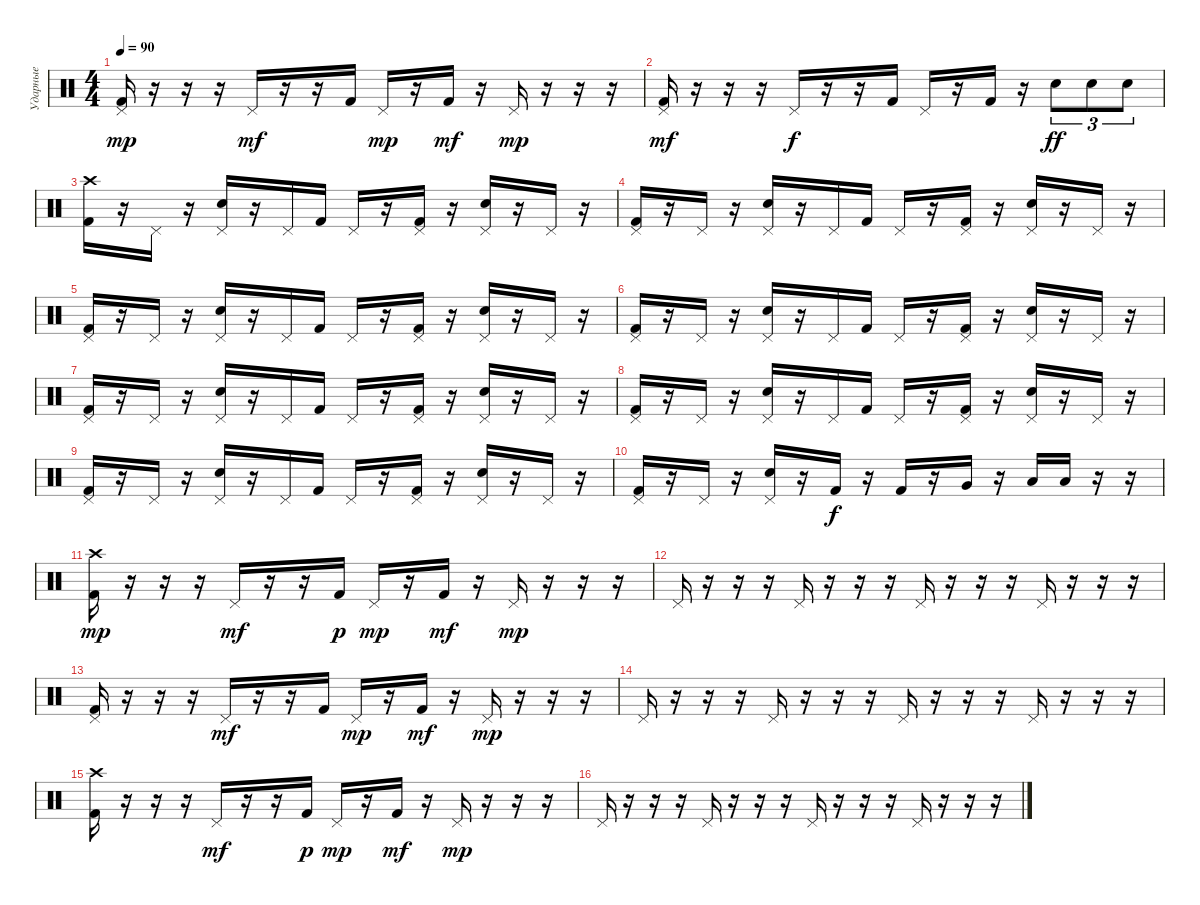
\track ("Ударные" "Ударные") {instrument percussion}
\staff {score}
\articulation defaults
\ts (4 4)
\tempo 90
\clef neutral
\ks aminor
("Pedal Hi-Hat (hit)" "Kick (hit) 2").16{dy mp} r.16 r.16 r.16 "Pedal Hi-Hat (hit)".16{dy mf} r.16 r.16 "Kick (hit) 2".16 "Pedal Hi-Hat (hit)".16{dy mp} r.16 "Kick (hit) 2".16{dy mf} r.16 "Pedal Hi-Hat (hit)".16{dy mp} r.16 r.16 r.16 |
("Pedal Hi-Hat (hit)" "Kick (hit) 2").16{dy mf} r.16 r.16 r.16 "Pedal Hi-Hat (hit)".16{dy f} r.16 r.16 "Kick (hit) 2".16 "Pedal Hi-Hat (hit)".16 r.16 "Kick (hit) 2".16 r.16 "Electric Snare (hit)".8{tu (3 2) dy ff} "Electric Snare (hit)".8{tu (3 2)} "Electric Snare (hit)".8{tu (3 2)} |
("Crash high (hit)" "Kick (hit) 2").16 r.16 "Pedal Hi-Hat (hit)".16 r.16 ("Pedal Hi-Hat (hit)" "Electric Snare (hit)").16 r.16 "Pedal Hi-Hat (hit)".16 "Kick (hit) 2".16 "Pedal Hi-Hat (hit)".16 r.16 ("Pedal Hi-Hat (hit)" "Kick (hit) 2").16 r.16 ("Pedal Hi-Hat (hit)" "Electric Snare (hit)").16 r.16 "Pedal Hi-Hat (hit)".16 r.16 |
("Pedal Hi-Hat (hit)" "Kick (hit) 2").16 r.16 "Pedal Hi-Hat (hit)".16 r.16 ("Pedal Hi-Hat (hit)" "Electric Snare (hit)").16 r.16 "Pedal Hi-Hat (hit)".16 "Kick (hit) 2".16 "Pedal Hi-Hat (hit)".16 r.16 ("Pedal Hi-Hat (hit)" "Kick (hit) 2").16 r.16 ("Pedal Hi-Hat (hit)" "Electric Snare (hit)").16 r.16 "Pedal Hi-Hat (hit)".16 r.16 |
("Pedal Hi-Hat (hit)" "Kick (hit) 2").16 r.16 "Pedal Hi-Hat (hit)".16 r.16 ("Pedal Hi-Hat (hit)" "Electric Snare (hit)").16 r.16 "Pedal Hi-Hat (hit)".16 "Kick (hit) 2".16 "Pedal Hi-Hat (hit)".16 r.16 ("Pedal Hi-Hat (hit)" "Kick (hit) 2").16 r.16 ("Pedal Hi-Hat (hit)" "Electric Snare (hit)").16 r.16 "Pedal Hi-Hat (hit)".16 r.16 |
("Pedal Hi-Hat (hit)" "Kick (hit) 2").16 r.16 "Pedal Hi-Hat (hit)".16 r.16 ("Pedal Hi-Hat (hit)" "Electric Snare (hit)").16 r.16 "Pedal Hi-Hat (hit)".16 "Kick (hit) 2".16 "Pedal Hi-Hat (hit)".16 r.16 ("Pedal Hi-Hat (hit)" "Kick (hit) 2").16 r.16 ("Pedal Hi-Hat (hit)" "Electric Snare (hit)").16 r.16 "Pedal Hi-Hat (hit)".16 r.16 |
("Pedal Hi-Hat (hit)" "Kick (hit) 2").16 r.16 "Pedal Hi-Hat (hit)".16 r.16 ("Pedal Hi-Hat (hit)" "Electric Snare (hit)").16 r.16 "Pedal Hi-Hat (hit)".16 "Kick (hit) 2".16 "Pedal Hi-Hat (hit)".16 r.16 ("Pedal Hi-Hat (hit)" "Kick (hit) 2").16 r.16 ("Pedal Hi-Hat (hit)" "Electric Snare (hit)").16 r.16 "Pedal Hi-Hat (hit)".16 r.16 |
("Pedal Hi-Hat (hit)" "Kick (hit) 2").16 r.16 "Pedal Hi-Hat (hit)".16 r.16 ("Pedal Hi-Hat (hit)" "Electric Snare (hit)").16 r.16 "Pedal Hi-Hat (hit)".16 "Kick (hit) 2".16 "Pedal Hi-Hat (hit)".16 r.16 ("Pedal Hi-Hat (hit)" "Kick (hit) 2").16 r.16 ("Pedal Hi-Hat (hit)" "Electric Snare (hit)").16 r.16 "Pedal Hi-Hat (hit)".16 r.16 |
("Pedal Hi-Hat (hit)" "Kick (hit) 2").16 r.16 "Pedal Hi-Hat (hit)".16 r.16 ("Pedal Hi-Hat (hit)" "Electric Snare (hit)").16 r.16 "Pedal Hi-Hat (hit)".16 "Kick (hit) 2".16 "Pedal Hi-Hat (hit)".16 r.16 ("Pedal Hi-Hat (hit)" "Kick (hit) 2").16 r.16 ("Pedal Hi-Hat (hit)" "Electric Snare (hit)").16 r.16 "Pedal Hi-Hat (hit)".16 r.16 |
("Pedal Hi-Hat (hit)" "Kick (hit) 2").16 r.16 "Pedal Hi-Hat (hit)".16 r.16 ("Pedal Hi-Hat (hit)" "Electric Snare (hit)").16 r.16 "Kick (hit) 2".16{dy f} r.16 "Kick (hit) 2".16 r.16 "Very Low Tom (hit)".16 r.16 "Low Tom (hit)".16 "Low Tom (hit)".16 r.16 r.16 |
("Crash high (hit)" "Kick (hit) 2").16{dy mp} r.16 r.16 r.16 "Pedal Hi-Hat (hit)".16{dy mf} r.16 r.16 "Kick (hit) 2".16{dy p} "Pedal Hi-Hat (hit)".16{dy mp} r.16 "Kick (hit) 2".16{dy mf} r.16 "Pedal Hi-Hat (hit)".16{dy mp} r.16 r.16 r.16 |
"Pedal Hi-Hat (hit)".16 r.16 r.16 r.16 "Pedal Hi-Hat (hit)".16 r.16 r.16 r.16 "Pedal Hi-Hat (hit)".16 r.16 r.16 r.16 "Pedal Hi-Hat (hit)".16 r.16 r.16 r.16 |
("Pedal Hi-Hat (hit)" "Kick (hit) 2").16 r.16 r.16 r.16 "Pedal Hi-Hat (hit)".16{dy mf} r.16 r.16 "Kick (hit) 2".16 "Pedal Hi-Hat (hit)".16{dy mp} r.16 "Kick (hit) 2".16{dy mf} r.16 "Pedal Hi-Hat (hit)".16{dy mp} r.16 r.16 r.16 |
"Pedal Hi-Hat (hit)".16 r.16 r.16 r.16 "Pedal Hi-Hat (hit)".16 r.16 r.16 r.16 "Pedal Hi-Hat (hit)".16 r.16 r.16 r.16 "Pedal Hi-Hat (hit)".16 r.16 r.16 r.16 |
("Crash high (hit)" "Kick (hit) 2").16 r.16 r.16 r.16 "Pedal Hi-Hat (hit)".16{dy mf} r.16 r.16 "Kick (hit) 2".16{dy p} "Pedal Hi-Hat (hit)".16{dy mp} r.16 "Kick (hit) 2".16{dy mf} r.16 "Pedal Hi-Hat (hit)".16{dy mp} r.16 r.16 r.16 |
"Pedal Hi-Hat (hit)".16 r.16 r.16 r.16 "Pedal Hi-Hat (hit)".16 r.16 r.16 r.16 "Pedal Hi-Hat (hit)".16 r.16 r.16 r.16 "Pedal Hi-Hat (hit)".16 r.16 r.16 r.16
